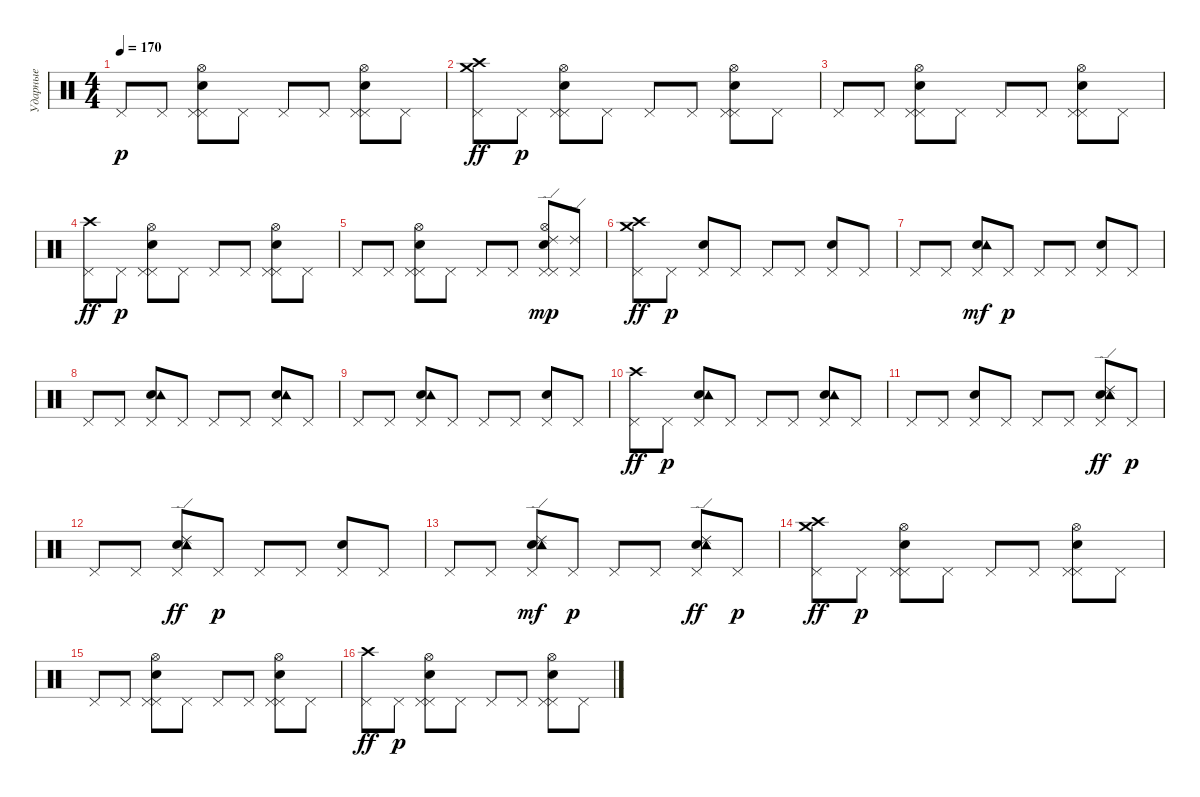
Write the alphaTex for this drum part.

\track ("Ударные" "Ударные") {instrument percussion}
\staff {score}
\articulation defaults
\ts (4 4)
\tempo 170
\clef neutral
\ks c "Pedal Hi-Hat (hit)".8{dy p} "Pedal Hi-Hat (hit)".8
("Pedal Hi-Hat (hit)" "Snare (hit) 2" "Pedal Hi-Hat (hit)" "Hi-Hat (open)").8 "Pedal Hi-Hat (hit)".8 "Pedal Hi-Hat (hit)".8 "Pedal Hi-Hat (hit)".8 ("Pedal Hi-Hat (hit)" "Snare (hit) 2" "Pedal Hi-Hat (hit)" "Hi-Hat (open)").8 "Pedal Hi-Hat (hit)".8 |
("Pedal Hi-Hat (hit)" "Crash medium (hit)" "Crash high (hit)").8{dy ff} "Pedal Hi-Hat (hit)".8{dy p} ("Pedal Hi-Hat (hit)" "Snare (hit) 2" "Pedal Hi-Hat (hit)" "Hi-Hat (open)").8 "Pedal Hi-Hat (hit)".8 "Pedal Hi-Hat (hit)".8 "Pedal Hi-Hat (hit)".8 ("Pedal Hi-Hat (hit)" "Snare (hit) 2" "Pedal Hi-Hat (hit)" "Hi-Hat (open)").8 "Pedal Hi-Hat (hit)".8 |
"Pedal Hi-Hat (hit)".8 "Pedal Hi-Hat (hit)".8 ("Pedal Hi-Hat (hit)" "Snare (hit) 2" "Pedal Hi-Hat (hit)" "Hi-Hat (open)").8 "Pedal Hi-Hat (hit)".8 "Pedal Hi-Hat (hit)".8 "Pedal Hi-Hat (hit)".8 ("Pedal Hi-Hat (hit)" "Snare (hit) 2" "Pedal Hi-Hat (hit)" "Hi-Hat (open)").8 "Pedal Hi-Hat (hit)".8 |
("Pedal Hi-Hat (hit)" "Crash high (hit)").8{dy ff} "Pedal Hi-Hat (hit)".8{dy p} ("Pedal Hi-Hat (hit)" "Snare (hit) 2" "Pedal Hi-Hat (hit)" "Hi-Hat (open)").8 "Pedal Hi-Hat (hit)".8 "Pedal Hi-Hat (hit)".8 "Pedal Hi-Hat (hit)".8 ("Pedal Hi-Hat (hit)" "Snare (hit) 2" "Pedal Hi-Hat (hit)" "Hi-Hat (open)").8 "Pedal Hi-Hat (hit)".8 |
"Pedal Hi-Hat (hit)".8 "Pedal Hi-Hat (hit)".8 ("Pedal Hi-Hat (hit)" "Snare (hit) 2" "Pedal Hi-Hat (hit)" "Hi-Hat (open)").8 "Pedal Hi-Hat (hit)".8 "Pedal Hi-Hat (hit)".8 "Pedal Hi-Hat (hit)".8 ("Pedal Hi-Hat (hit)" "Snare (hit) 2" "Pedal Hi-Hat (hit)" "Hi-Hat (open)" "Ride (edge) 2").8{dy mp} ("Pedal Hi-Hat (hit)" "Ride (edge) 2").8 |
("Pedal Hi-Hat (hit)" "Crash medium (hit)" "Crash high (hit)").8{dy ff} "Pedal Hi-Hat (hit)".8{dy p} ("Electric Snare (hit)" "Pedal Hi-Hat (hit)").8 "Pedal Hi-Hat (hit)".8 "Pedal Hi-Hat (hit)".8 "Pedal Hi-Hat (hit)".8 ("Electric Snare (hit)" "Pedal Hi-Hat (hit)").8 "Pedal Hi-Hat (hit)".8 |
"Pedal Hi-Hat (hit)".8 "Pedal Hi-Hat (hit)".8 ("Electric Snare (hit)" "Pedal Hi-Hat (hit)" "Tambourine (hit)").8{dy mf} "Pedal Hi-Hat (hit)".8{dy p} "Pedal Hi-Hat (hit)".8 "Pedal Hi-Hat (hit)".8 ("Electric Snare (hit)" "Pedal Hi-Hat (hit)").8 "Pedal Hi-Hat (hit)".8 |
"Pedal Hi-Hat (hit)".8 "Pedal Hi-Hat (hit)".8 ("Electric Snare (hit)" "Pedal Hi-Hat (hit)" "Tambourine (hit)").8 "Pedal Hi-Hat (hit)".8 "Pedal Hi-Hat (hit)".8 "Pedal Hi-Hat (hit)".8 ("Electric Snare (hit)" "Pedal Hi-Hat (hit)" "Tambourine (hit)").8 "Pedal Hi-Hat (hit)".8 |
"Pedal Hi-Hat (hit)".8 "Pedal Hi-Hat (hit)".8 ("Electric Snare (hit)" "Pedal Hi-Hat (hit)" "Tambourine (hit)").8 "Pedal Hi-Hat (hit)".8 "Pedal Hi-Hat (hit)".8 "Pedal Hi-Hat (hit)".8 ("Electric Snare (hit)" "Pedal Hi-Hat (hit)").8 "Pedal Hi-Hat (hit)".8 |
("Pedal Hi-Hat (hit)" "Crash high (hit)").8{dy ff} "Pedal Hi-Hat (hit)".8{dy p} ("Electric Snare (hit)" "Pedal Hi-Hat (hit)" "Tambourine (hit)").8 "Pedal Hi-Hat (hit)".8 "Pedal Hi-Hat (hit)".8 "Pedal Hi-Hat (hit)".8 ("Electric Snare (hit)" "Pedal Hi-Hat (hit)" "Tambourine (hit)").8 "Pedal Hi-Hat (hit)".8 |
"Pedal Hi-Hat (hit)".8 "Pedal Hi-Hat (hit)".8 ("Electric Snare (hit)" "Pedal Hi-Hat (hit)").8 "Pedal Hi-Hat (hit)".8 "Pedal Hi-Hat (hit)".8 "Pedal Hi-Hat (hit)".8 ("Electric Snare (hit)" "Pedal Hi-Hat (hit)" "Tambourine (hit)" "Ride (edge) 2").8{dy ff} "Pedal Hi-Hat (hit)".8{dy p} |
"Pedal Hi-Hat (hit)".8 "Pedal Hi-Hat (hit)".8 ("Electric Snare (hit)" "Pedal Hi-Hat (hit)" "Tambourine (hit)" "Ride (edge) 2").8{dy ff} "Pedal Hi-Hat (hit)".8{dy p} "Pedal Hi-Hat (hit)".8 "Pedal Hi-Hat (hit)".8 ("Electric Snare (hit)" "Pedal Hi-Hat (hit)").8 "Pedal Hi-Hat (hit)".8 |
"Pedal Hi-Hat (hit)".8 "Pedal Hi-Hat (hit)".8 ("Electric Snare (hit)" "Pedal Hi-Hat (hit)" "Tambourine (hit)" "Ride (edge) 2").8{dy mf} "Pedal Hi-Hat (hit)".8{dy p} "Pedal Hi-Hat (hit)".8 "Pedal Hi-Hat (hit)".8 ("Electric Snare (hit)" "Pedal Hi-Hat (hit)" "Tambourine (hit)" "Ride (edge) 2").8{dy ff} "Pedal Hi-Hat (hit)".8{dy p} |
("Pedal Hi-Hat (hit)" "Crash medium (hit)" "Crash high (hit)").8{dy ff} "Pedal Hi-Hat (hit)".8{dy p} ("Pedal Hi-Hat (hit)" "Snare (hit) 2" "Pedal Hi-Hat (hit)" "Hi-Hat (open)").8 "Pedal Hi-Hat (hit)".8 "Pedal Hi-Hat (hit)".8 "Pedal Hi-Hat (hit)".8 ("Pedal Hi-Hat (hit)" "Snare (hit) 2" "Pedal Hi-Hat (hit)" "Hi-Hat (open)").8 "Pedal Hi-Hat (hit)".8 |
"Pedal Hi-Hat (hit)".8 "Pedal Hi-Hat (hit)".8 ("Pedal Hi-Hat (hit)" "Snare (hit) 2" "Pedal Hi-Hat (hit)" "Hi-Hat (open)").8 "Pedal Hi-Hat (hit)".8 "Pedal Hi-Hat (hit)".8 "Pedal Hi-Hat (hit)".8 ("Pedal Hi-Hat (hit)" "Snare (hit) 2" "Pedal Hi-Hat (hit)" "Hi-Hat (open)").8 "Pedal Hi-Hat (hit)".8 |
("Pedal Hi-Hat (hit)" "Crash high (hit)").8{dy ff} "Pedal Hi-Hat (hit)".8{dy p} ("Pedal Hi-Hat (hit)" "Snare (hit) 2" "Pedal Hi-Hat (hit)" "Hi-Hat (open)").8 "Pedal Hi-Hat (hit)".8 "Pedal Hi-Hat (hit)".8 "Pedal Hi-Hat (hit)".8 ("Pedal Hi-Hat (hit)" "Snare (hit) 2" "Pedal Hi-Hat (hit)" "Hi-Hat (open)").8 "Pedal Hi-Hat (hit)".8
